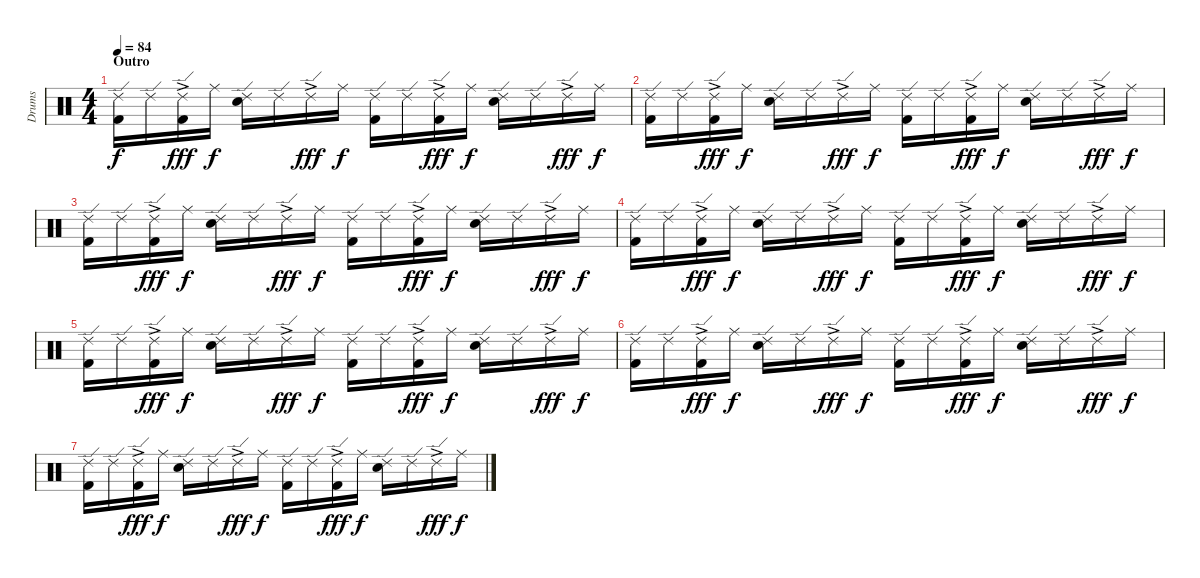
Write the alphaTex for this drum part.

\track ("Drums" "Drums") {instrument percussion}
\staff {score}
\articulation defaults
\ts (4 4)
\section ("" "Outro")
\tempo 84
\clef neutral
\ks c
("Ride (edge) 2" "Kick (hit) 2").16{dy f} "Ride (edge) 2".16 ("Ride (edge) 2"{ac} "Kick (hit) 2").16{dy fff} "Ride (middle)".16{dy f} ("Ride (edge) 2" "Snare (hit) 2").16 "Ride (edge) 2".16 "Ride (edge) 2"{ac}.16{dy fff} "Ride (middle)".16{dy f} ("Ride (edge) 2" "Kick (hit) 2").16 "Ride (edge) 2".16 ("Ride (edge) 2"{ac} "Kick (hit) 2").16{dy fff} "Ride (middle)".16{dy f} ("Ride (edge) 2" "Snare (hit) 2").16 "Ride (edge) 2".16 "Ride (edge) 2"{ac}.16{dy fff} "Ride (middle)".16{dy f} |
("Ride (edge) 2" "Kick (hit) 2").16 "Ride (edge) 2".16 ("Ride (edge) 2"{ac} "Kick (hit) 2").16{dy fff} "Ride (middle)".16{dy f} ("Ride (edge) 2" "Snare (hit) 2").16 "Ride (edge) 2".16 "Ride (edge) 2"{ac}.16{dy fff} "Ride (middle)".16{dy f} ("Ride (edge) 2" "Kick (hit) 2").16 "Ride (edge) 2".16 ("Ride (edge) 2"{ac} "Kick (hit) 2").16{dy fff} "Ride (middle)".16{dy f} ("Ride (edge) 2" "Snare (hit) 2").16 "Ride (edge) 2".16 "Ride (edge) 2"{ac}.16{dy fff} "Ride (middle)".16{dy f} |
("Ride (edge) 2" "Kick (hit) 2").16 "Ride (edge) 2".16 ("Ride (edge) 2"{ac} "Kick (hit) 2").16{dy fff} "Ride (middle)".16{dy f} ("Ride (edge) 2" "Snare (hit) 2").16 "Ride (edge) 2".16 "Ride (edge) 2"{ac}.16{dy fff} "Ride (middle)".16{dy f} ("Ride (edge) 2" "Kick (hit) 2").16 "Ride (edge) 2".16 ("Ride (edge) 2"{ac} "Kick (hit) 2").16{dy fff} "Ride (middle)".16{dy f} ("Ride (edge) 2" "Snare (hit) 2").16 "Ride (edge) 2".16 "Ride (edge) 2"{ac}.16{dy fff} "Ride (middle)".16{dy f} |
("Ride (edge) 2" "Kick (hit) 2").16 "Ride (edge) 2".16 ("Ride (edge) 2"{ac} "Kick (hit) 2").16{dy fff} "Ride (middle)".16{dy f} ("Ride (edge) 2" "Snare (hit) 2").16 "Ride (edge) 2".16 "Ride (edge) 2"{ac}.16{dy fff} "Ride (middle)".16{dy f} ("Ride (edge) 2" "Kick (hit) 2").16 "Ride (edge) 2".16 ("Ride (edge) 2"{ac} "Kick (hit) 2").16{dy fff} "Ride (middle)".16{dy f} ("Ride (edge) 2" "Snare (hit) 2").16 "Ride (edge) 2".16 "Ride (edge) 2"{ac}.16{dy fff} "Ride (middle)".16{dy f} |
("Ride (edge) 2" "Kick (hit) 2").16 "Ride (edge) 2".16 ("Ride (edge) 2"{ac} "Kick (hit) 2").16{dy fff} "Ride (middle)".16{dy f} ("Ride (edge) 2" "Snare (hit) 2").16 "Ride (edge) 2".16 "Ride (edge) 2"{ac}.16{dy fff} "Ride (middle)".16{dy f} ("Ride (edge) 2" "Kick (hit) 2").16 "Ride (edge) 2".16 ("Ride (edge) 2"{ac} "Kick (hit) 2").16{dy fff} "Ride (middle)".16{dy f} ("Ride (edge) 2" "Snare (hit) 2").16 "Ride (edge) 2".16 "Ride (edge) 2"{ac}.16{dy fff} "Ride (middle)".16{dy f} |
("Ride (edge) 2" "Kick (hit) 2").16 "Ride (edge) 2".16 ("Ride (edge) 2"{ac} "Kick (hit) 2").16{dy fff} "Ride (middle)".16{dy f} ("Ride (edge) 2" "Snare (hit) 2").16 "Ride (edge) 2".16 "Ride (edge) 2"{ac}.16{dy fff} "Ride (middle)".16{dy f} ("Ride (edge) 2" "Kick (hit) 2").16 "Ride (edge) 2".16 ("Ride (edge) 2"{ac} "Kick (hit) 2").16{dy fff} "Ride (middle)".16{dy f} ("Ride (edge) 2" "Snare (hit) 2").16 "Ride (edge) 2".16 "Ride (edge) 2"{ac}.16{dy fff} "Ride (middle)".16{dy f} |
("Ride (edge) 2" "Kick (hit) 2").16 "Ride (edge) 2".16 ("Ride (edge) 2"{ac} "Kick (hit) 2").16{dy fff} "Ride (middle)".16{dy f} ("Ride (edge) 2" "Snare (hit) 2").16 "Ride (edge) 2".16 "Ride (edge) 2"{ac}.16{dy fff} "Ride (middle)".16{dy f} ("Ride (edge) 2" "Kick (hit) 2").16 "Ride (edge) 2".16 ("Ride (edge) 2"{ac} "Kick (hit) 2").16{dy fff} "Ride (middle)".16{dy f} ("Ride (edge) 2" "Snare (hit) 2").16 "Ride (edge) 2".16 "Ride (edge) 2"{ac}.16{dy fff} "Ride (middle)".16{dy f}
